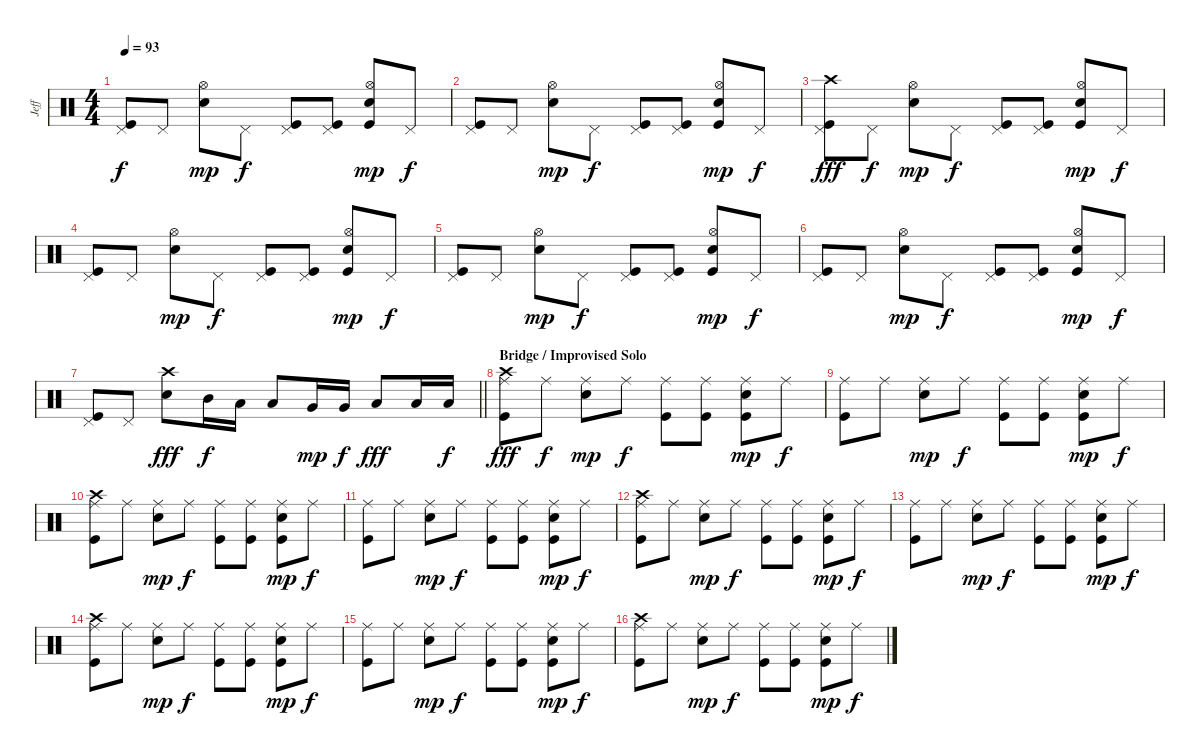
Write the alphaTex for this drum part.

\track ("Jeff" "Jeff") {instrument percussion}
\staff {score}
\articulation defaults
\ts (4 4)
\tempo 93
\clef neutral
\ks c
("Pedal Hi-Hat (hit)" "Kick (hit)").8{dy f} "Pedal Hi-Hat (hit)".8 ("Hi-Hat (open)" "Snare (hit) 2").8{dy mp} "Pedal Hi-Hat (hit)".8{dy f} ("Pedal Hi-Hat (hit)" "Kick (hit)").8 ("Pedal Hi-Hat (hit)" "Kick (hit)").8 ("Hi-Hat (open)" "Snare (hit) 2" "Kick (hit)").8{dy mp} "Pedal Hi-Hat (hit)".8{dy f} |
("Pedal Hi-Hat (hit)" "Kick (hit)").8 "Pedal Hi-Hat (hit)".8 ("Hi-Hat (open)" "Snare (hit) 2").8{dy mp} "Pedal Hi-Hat (hit)".8{dy f} ("Pedal Hi-Hat (hit)" "Kick (hit)").8 ("Pedal Hi-Hat (hit)" "Kick (hit)").8 ("Hi-Hat (open)" "Snare (hit) 2" "Kick (hit)").8{dy mp} "Pedal Hi-Hat (hit)".8{dy f} |
("Pedal Hi-Hat (hit)" "Crash high (hit)" "Kick (hit)").8{dy fff} "Pedal Hi-Hat (hit)".8{dy f} ("Hi-Hat (open)" "Snare (hit) 2").8{dy mp} "Pedal Hi-Hat (hit)".8{dy f} ("Pedal Hi-Hat (hit)" "Kick (hit)").8 ("Pedal Hi-Hat (hit)" "Kick (hit)").8 ("Hi-Hat (open)" "Snare (hit) 2" "Kick (hit)").8{dy mp} "Pedal Hi-Hat (hit)".8{dy f} |
("Pedal Hi-Hat (hit)" "Kick (hit)").8 "Pedal Hi-Hat (hit)".8 ("Hi-Hat (open)" "Snare (hit) 2").8{dy mp} "Pedal Hi-Hat (hit)".8{dy f} ("Pedal Hi-Hat (hit)" "Kick (hit)").8 ("Pedal Hi-Hat (hit)" "Kick (hit)").8 ("Hi-Hat (open)" "Snare (hit) 2" "Kick (hit)").8{dy mp} "Pedal Hi-Hat (hit)".8{dy f} |
("Pedal Hi-Hat (hit)" "Kick (hit)").8 "Pedal Hi-Hat (hit)".8 ("Hi-Hat (open)" "Snare (hit) 2").8{dy mp} "Pedal Hi-Hat (hit)".8{dy f} ("Pedal Hi-Hat (hit)" "Kick (hit)").8 ("Pedal Hi-Hat (hit)" "Kick (hit)").8 ("Hi-Hat (open)" "Snare (hit) 2" "Kick (hit)").8{dy mp} "Pedal Hi-Hat (hit)".8{dy f} |
("Pedal Hi-Hat (hit)" "Kick (hit)").8 "Pedal Hi-Hat (hit)".8 ("Hi-Hat (open)" "Snare (hit) 2").8{dy mp} "Pedal Hi-Hat (hit)".8{dy f} ("Pedal Hi-Hat (hit)" "Kick (hit)").8 ("Pedal Hi-Hat (hit)" "Kick (hit)").8 ("Hi-Hat (open)" "Snare (hit) 2" "Kick (hit)").8{dy mp} "Pedal Hi-Hat (hit)".8{dy f} |
\barLineRight lightlight
("Pedal Hi-Hat (hit)" "Kick (hit)").8 "Pedal Hi-Hat (hit)".8 ("Snare (hit) 2" "Crash high (hit)").8{dy fff} "Mid Tom (hit)".16{dy f} "Low Tom (hit)".16 "Low Tom (hit)".8 "Very Low Tom (hit)".16{dy mp} "Very Low Tom (hit)".16{dy f} "Low Floor Tom (hit)".8{dy fff} "Low Floor Tom (hit)".16 "Low Floor Tom (hit)".16{dy f} |
\section ("" "Bridge / Improvised Solo")
("Ride (middle)" "Crash high (hit)" "Kick (hit)").8{dy fff} "Ride (middle)".8{dy f} ("Ride (middle)" "Snare (hit) 2").8{dy mp} "Ride (middle)".8{dy f} ("Ride (middle)" "Kick (hit)").8 ("Ride (middle)" "Kick (hit)").8 ("Ride (middle)" "Snare (hit) 2" "Kick (hit)").8{dy mp} "Ride (middle)".8{dy f} |
("Ride (middle)" "Kick (hit)").8 "Ride (middle)".8 ("Ride (middle)" "Snare (hit) 2").8{dy mp} "Ride (middle)".8{dy f} ("Ride (middle)" "Kick (hit)").8 ("Ride (middle)" "Kick (hit)").8 ("Ride (middle)" "Snare (hit) 2" "Kick (hit)").8{dy mp} "Ride (middle)".8{dy f} |
("Ride (middle)" "Crash high (hit)" "Kick (hit)").8 "Ride (middle)".8 ("Ride (middle)" "Snare (hit) 2").8{dy mp} "Ride (middle)".8{dy f} ("Ride (middle)" "Kick (hit)").8 ("Ride (middle)" "Kick (hit)").8 ("Ride (middle)" "Snare (hit) 2" "Kick (hit)").8{dy mp} "Ride (middle)".8{dy f} |
("Ride (middle)" "Kick (hit)").8 "Ride (middle)".8 ("Ride (middle)" "Snare (hit) 2").8{dy mp} "Ride (middle)".8{dy f} ("Ride (middle)" "Kick (hit)").8 ("Ride (middle)" "Kick (hit)").8 ("Ride (middle)" "Snare (hit) 2" "Kick (hit)").8{dy mp} "Ride (middle)".8{dy f} |
("Ride (middle)" "Crash high (hit)" "Kick (hit)").8 "Ride (middle)".8 ("Ride (middle)" "Snare (hit) 2").8{dy mp} "Ride (middle)".8{dy f} ("Ride (middle)" "Kick (hit)").8 ("Ride (middle)" "Kick (hit)").8 ("Ride (middle)" "Snare (hit) 2" "Kick (hit)").8{dy mp} "Ride (middle)".8{dy f} |
("Ride (middle)" "Kick (hit)").8 "Ride (middle)".8 ("Ride (middle)" "Snare (hit) 2").8{dy mp} "Ride (middle)".8{dy f} ("Ride (middle)" "Kick (hit)").8 ("Ride (middle)" "Kick (hit)").8 ("Ride (middle)" "Snare (hit) 2" "Kick (hit)").8{dy mp} "Ride (middle)".8{dy f} |
("Ride (middle)" "Crash high (hit)" "Kick (hit)").8 "Ride (middle)".8 ("Ride (middle)" "Snare (hit) 2").8{dy mp} "Ride (middle)".8{dy f} ("Ride (middle)" "Kick (hit)").8 ("Ride (middle)" "Kick (hit)").8 ("Ride (middle)" "Snare (hit) 2" "Kick (hit)").8{dy mp} "Ride (middle)".8{dy f} |
("Ride (middle)" "Kick (hit)").8 "Ride (middle)".8 ("Ride (middle)" "Snare (hit) 2").8{dy mp} "Ride (middle)".8{dy f} ("Ride (middle)" "Kick (hit)").8 ("Ride (middle)" "Kick (hit)").8 ("Ride (middle)" "Snare (hit) 2" "Kick (hit)").8{dy mp} "Ride (middle)".8{dy f} |
("Ride (middle)" "Crash high (hit)" "Kick (hit)").8 "Ride (middle)".8 ("Ride (middle)" "Snare (hit) 2").8{dy mp} "Ride (middle)".8{dy f} ("Ride (middle)" "Kick (hit)").8 ("Ride (middle)" "Kick (hit)").8 ("Ride (middle)" "Snare (hit) 2" "Kick (hit)").8{dy mp} "Ride (middle)".8{dy f}
